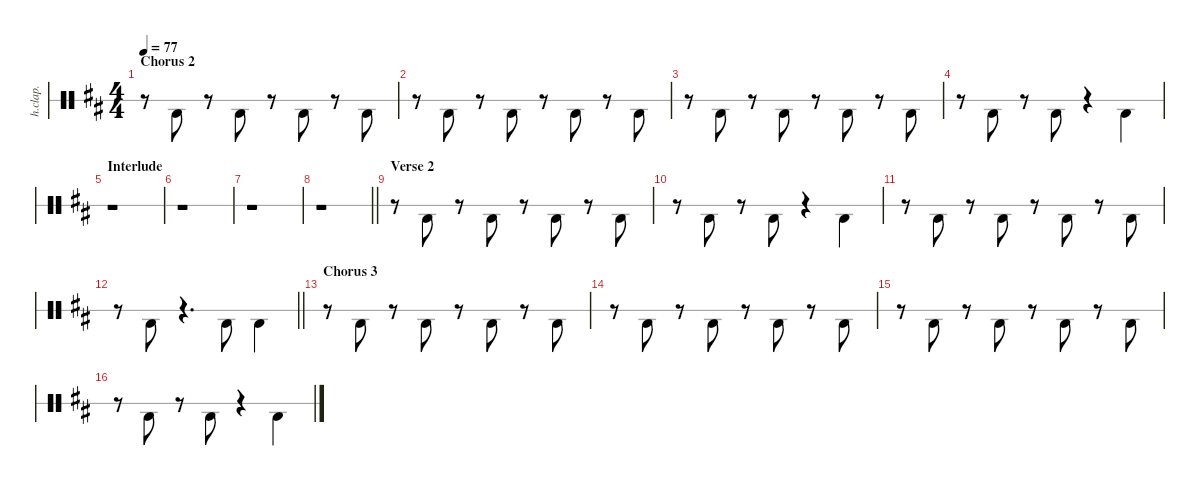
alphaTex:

\defaultSystemsLayout 4
\hideDynamics
\bracketExtendMode nobrackets
\otherSystemsTrackNameOrientation horizontal
\track ("Hand Clap" "h.clap.") {defaultSystemsLayout 8 instrument percussion}
\staff {score 1}
\articulation defaults
\ts (4 4)
\section ("" "Chorus 2")
\tempo 77
\clef neutral
\ks bminor
r.8{dy mf beam Down} "Hand Clap (hit)"{acc forcenatural}.8{beam Down beam split} r.8{beam Down beam split} "Hand Clap (hit)"{acc forcenatural}.8{beam Down beam split} r.8{beam Down beam split} "Hand Clap (hit)"{acc forcenatural}.8{beam Down beam split} r.8{beam Down beam split} "Hand Clap (hit)"{acc forcenatural}.8{beam Down} |
r.8{beam Down} "Hand Clap (hit)"{acc forcenatural}.8{beam Down beam split} r.8{beam Down beam split} "Hand Clap (hit)"{acc forcenatural}.8{beam Down beam split} r.8{beam Down beam split} "Hand Clap (hit)"{acc forcenatural}.8{beam Down beam split} r.8{beam Down beam split} "Hand Clap (hit)"{acc forcenatural}.8{beam Down} |
r.8{beam Down} "Hand Clap (hit)"{acc forcenatural}.8{beam Down beam split} r.8{beam Down beam split} "Hand Clap (hit)"{acc forcenatural}.8{beam Down beam split} r.8{beam Down beam split} "Hand Clap (hit)"{acc forcenatural}.8{beam Down beam split} r.8{beam Down beam split} "Hand Clap (hit)"{acc forcenatural}.8{beam Down} |
r.8{beam Down} "Hand Clap (hit)"{acc forcenatural}.8{beam Down beam split} r.8{beam Down beam split} "Hand Clap (hit)"{acc forcenatural}.8{beam Down beam split} r.4{beam Down beam split} "Hand Clap (hit)"{acc forcenatural}.4{beam Down} |
\section ("" "Interlude")
r.1{beam Down} |
r.1{beam Down} |
r.1{beam Down} |
\barLineRight lightlight
r.1{beam Down} |
\section ("" "Verse 2")
r.8{beam Down} "Hand Clap (hit)"{acc forcenatural}.8{beam Down beam split} r.8{beam Down beam split} "Hand Clap (hit)"{acc forcenatural}.8{beam Down beam split} r.8{beam Down beam split} "Hand Clap (hit)"{acc forcenatural}.8{beam Down beam split} r.8{beam Down beam split} "Hand Clap (hit)"{acc forcenatural}.8{beam Down} |
r.8{beam Down} "Hand Clap (hit)"{acc forcenatural}.8{beam Down beam split} r.8{beam Down beam split} "Hand Clap (hit)"{acc forcenatural}.8{beam Down beam split} r.4{beam Down beam split} "Hand Clap (hit)"{acc forcenatural}.4{beam Down} |
r.8{beam Down} "Hand Clap (hit)"{acc forcenatural}.8{beam Down beam split} r.8{beam Down beam split} "Hand Clap (hit)"{acc forcenatural}.8{beam Down beam split} r.8{beam Down beam split} "Hand Clap (hit)"{acc forcenatural}.8{beam Down beam split} r.8{beam Down beam split} "Hand Clap (hit)"{acc forcenatural}.8{beam Down} |
\barLineRight lightlight
r.8{beam Down} "Hand Clap (hit)"{acc forcenatural}.8{beam Down beam split} r.4{d beam Down beam split} "Hand Clap (hit)"{acc forcenatural}.8{beam Down} "Hand Clap (hit)"{acc forcenatural}.4{beam Down} |
\section ("" "Chorus 3")
r.8{beam Down} "Hand Clap (hit)"{acc forcenatural}.8{beam Down beam split} r.8{beam Down beam split} "Hand Clap (hit)"{acc forcenatural}.8{beam Down beam split} r.8{beam Down beam split} "Hand Clap (hit)"{acc forcenatural}.8{beam Down beam split} r.8{beam Down beam split} "Hand Clap (hit)"{acc forcenatural}.8{beam Down} |
r.8{beam Down} "Hand Clap (hit)"{acc forcenatural}.8{beam Down beam split} r.8{beam Down beam split} "Hand Clap (hit)"{acc forcenatural}.8{beam Down beam split} r.8{beam Down beam split} "Hand Clap (hit)"{acc forcenatural}.8{beam Down beam split} r.8{beam Down beam split} "Hand Clap (hit)"{acc forcenatural}.8{beam Down} |
r.8{beam Down} "Hand Clap (hit)"{acc forcenatural}.8{beam Down beam split} r.8{beam Down beam split} "Hand Clap (hit)"{acc forcenatural}.8{beam Down beam split} r.8{beam Down beam split} "Hand Clap (hit)"{acc forcenatural}.8{beam Down beam split} r.8{beam Down beam split} "Hand Clap (hit)"{acc forcenatural}.8{beam Down} |
r.8{beam Down} "Hand Clap (hit)"{acc forcenatural}.8{beam Down beam split} r.8{beam Down beam split} "Hand Clap (hit)"{acc forcenatural}.8{beam Down beam split} r.4{beam Down beam split} "Hand Clap (hit)"{acc forcenatural}.4{beam Down}
